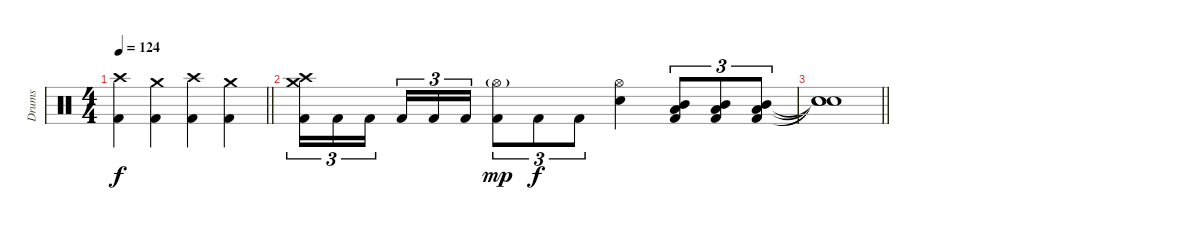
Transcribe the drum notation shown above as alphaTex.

\track ("Drums" "Drums") {instrument percussion}
\staff {score}
\articulation defaults
\ts (4 4)
\tempo 124
\clef neutral
\barLineRight lightlight
\ks c
("Crash high (hit)" "Kick (hit) 2").4{dy f} ("Crash medium (hit)" "Kick (hit) 2").4 ("Crash high (hit)" "Kick (hit) 2").4 ("Crash medium (hit)" "Kick (hit) 2").4 |
("Crash high (hit)" "Crash medium (hit)" "Kick (hit) 2").16{tu (3 2)} "Kick (hit) 2".16{tu (3 2)} "Kick (hit) 2".16{tu (3 2)} "Kick (hit) 2".16{tu (3 2)} "Kick (hit) 2".16{tu (3 2)} "Kick (hit) 2".16{tu (3 2)} ("Hi-Hat (open)"{g} "Kick (hit) 2").8{tu (3 2) dy mp} "Kick (hit) 2".8{tu (3 2) dy f} "Kick (hit) 2".8{tu (3 2)} ("Hi-Hat (open)" "Electric Snare (hit)").4 ("Mid Tom (hit)" "Low Tom (hit)" "Kick (hit) 2").8{tu (3 2)} ("Mid Tom (hit)" "Low Tom (hit)" "Kick (hit) 2").8{tu (3 2)} ("Mid Tom (hit)" "Low Tom (hit)" "Kick (hit) 2").8{tu (3 2)} |
\barLineRight lightlight
("Snare (hit)"{t} "Snare (hit)"{t} "Snare (hit)"{t}).1
